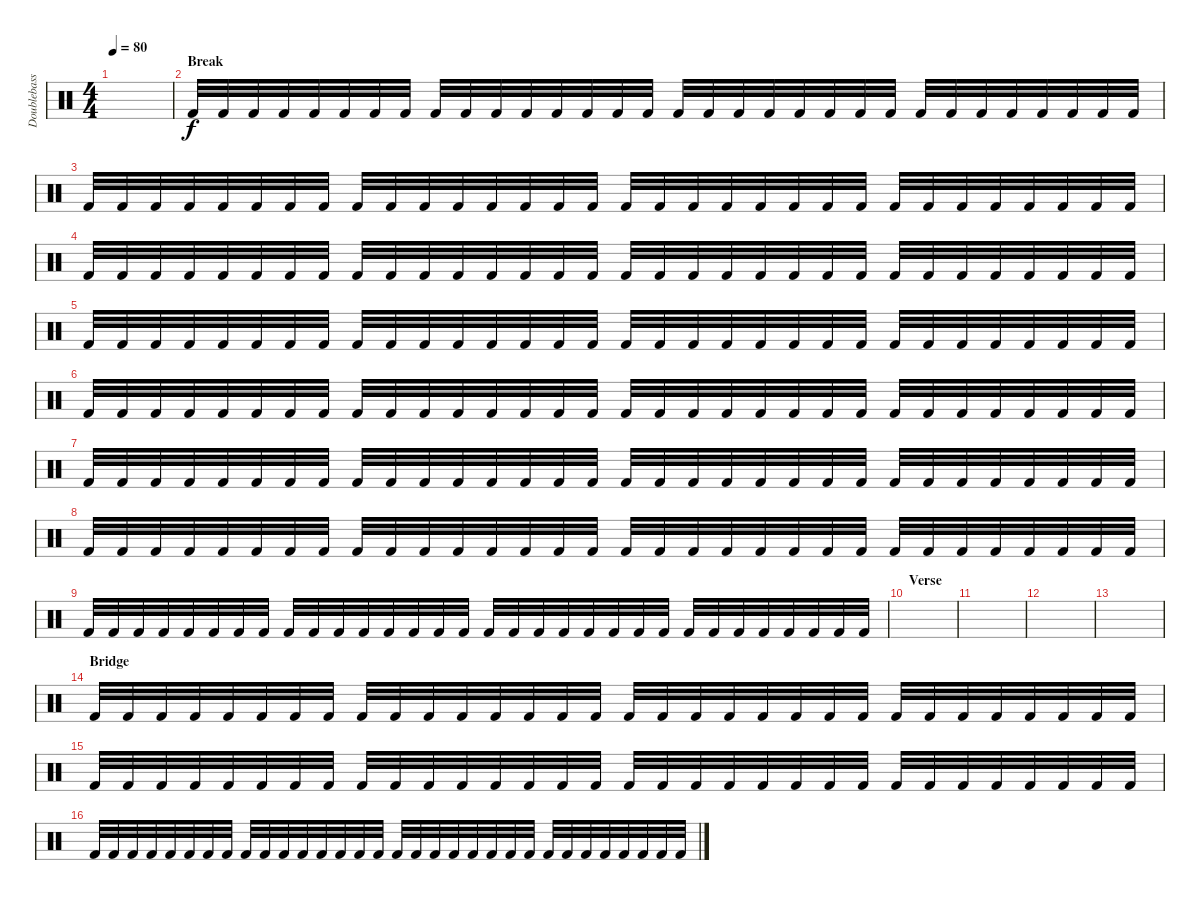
\track ("Doublebass" "Doublebass") {instrument percussion}
\staff {score}
\articulation defaults
\ts (4 4)
\tempo 80
\clef neutral
\ks c
|
\section ("" "Break")
"Kick (hit) 2".32 "Kick (hit) 2".32 "Kick (hit) 2".32 "Kick (hit) 2".32 "Kick (hit) 2".32 "Kick (hit) 2".32 "Kick (hit) 2".32 "Kick (hit) 2".32 "Kick (hit) 2".32 "Kick (hit) 2".32 "Kick (hit) 2".32 "Kick (hit) 2".32 "Kick (hit) 2".32 "Kick (hit) 2".32 "Kick (hit) 2".32 "Kick (hit) 2".32 "Kick (hit) 2".32 "Kick (hit) 2".32 "Kick (hit) 2".32 "Kick (hit) 2".32 "Kick (hit) 2".32 "Kick (hit) 2".32 "Kick (hit) 2".32 "Kick (hit) 2".32 "Kick (hit) 2".32 "Kick (hit) 2".32 "Kick (hit) 2".32 "Kick (hit) 2".32 "Kick (hit) 2".32 "Kick (hit) 2".32 "Kick (hit) 2".32 "Kick (hit) 2".32 |
"Kick (hit) 2".32 "Kick (hit) 2".32 "Kick (hit) 2".32 "Kick (hit) 2".32 "Kick (hit) 2".32 "Kick (hit) 2".32 "Kick (hit) 2".32 "Kick (hit) 2".32 "Kick (hit) 2".32 "Kick (hit) 2".32 "Kick (hit) 2".32 "Kick (hit) 2".32 "Kick (hit) 2".32 "Kick (hit) 2".32 "Kick (hit) 2".32 "Kick (hit) 2".32 "Kick (hit) 2".32 "Kick (hit) 2".32 "Kick (hit) 2".32 "Kick (hit) 2".32 "Kick (hit) 2".32 "Kick (hit) 2".32 "Kick (hit) 2".32 "Kick (hit) 2".32 "Kick (hit) 2".32 "Kick (hit) 2".32 "Kick (hit) 2".32 "Kick (hit) 2".32 "Kick (hit) 2".32 "Kick (hit) 2".32 "Kick (hit) 2".32 "Kick (hit) 2".32 |
"Kick (hit) 2".32 "Kick (hit) 2".32 "Kick (hit) 2".32 "Kick (hit) 2".32 "Kick (hit) 2".32 "Kick (hit) 2".32 "Kick (hit) 2".32 "Kick (hit) 2".32 "Kick (hit) 2".32 "Kick (hit) 2".32 "Kick (hit) 2".32 "Kick (hit) 2".32 "Kick (hit) 2".32 "Kick (hit) 2".32 "Kick (hit) 2".32 "Kick (hit) 2".32 "Kick (hit) 2".32 "Kick (hit) 2".32 "Kick (hit) 2".32 "Kick (hit) 2".32 "Kick (hit) 2".32 "Kick (hit) 2".32 "Kick (hit) 2".32 "Kick (hit) 2".32 "Kick (hit) 2".32 "Kick (hit) 2".32 "Kick (hit) 2".32 "Kick (hit) 2".32 "Kick (hit) 2".32 "Kick (hit) 2".32 "Kick (hit) 2".32 "Kick (hit) 2".32 |
"Kick (hit) 2".32 "Kick (hit) 2".32 "Kick (hit) 2".32 "Kick (hit) 2".32 "Kick (hit) 2".32 "Kick (hit) 2".32 "Kick (hit) 2".32 "Kick (hit) 2".32 "Kick (hit) 2".32 "Kick (hit) 2".32 "Kick (hit) 2".32 "Kick (hit) 2".32 "Kick (hit) 2".32 "Kick (hit) 2".32 "Kick (hit) 2".32 "Kick (hit) 2".32 "Kick (hit) 2".32 "Kick (hit) 2".32 "Kick (hit) 2".32 "Kick (hit) 2".32 "Kick (hit) 2".32 "Kick (hit) 2".32 "Kick (hit) 2".32 "Kick (hit) 2".32 "Kick (hit) 2".32 "Kick (hit) 2".32 "Kick (hit) 2".32 "Kick (hit) 2".32 "Kick (hit) 2".32 "Kick (hit) 2".32 "Kick (hit) 2".32 "Kick (hit) 2".32 |
"Kick (hit) 2".32 "Kick (hit) 2".32 "Kick (hit) 2".32 "Kick (hit) 2".32 "Kick (hit) 2".32 "Kick (hit) 2".32 "Kick (hit) 2".32 "Kick (hit) 2".32 "Kick (hit) 2".32 "Kick (hit) 2".32 "Kick (hit) 2".32 "Kick (hit) 2".32 "Kick (hit) 2".32 "Kick (hit) 2".32 "Kick (hit) 2".32 "Kick (hit) 2".32 "Kick (hit) 2".32 "Kick (hit) 2".32 "Kick (hit) 2".32 "Kick (hit) 2".32 "Kick (hit) 2".32 "Kick (hit) 2".32 "Kick (hit) 2".32 "Kick (hit) 2".32 "Kick (hit) 2".32 "Kick (hit) 2".32 "Kick (hit) 2".32 "Kick (hit) 2".32 "Kick (hit) 2".32 "Kick (hit) 2".32 "Kick (hit) 2".32 "Kick (hit) 2".32 |
"Kick (hit) 2".32 "Kick (hit) 2".32 "Kick (hit) 2".32 "Kick (hit) 2".32 "Kick (hit) 2".32 "Kick (hit) 2".32 "Kick (hit) 2".32 "Kick (hit) 2".32 "Kick (hit) 2".32 "Kick (hit) 2".32 "Kick (hit) 2".32 "Kick (hit) 2".32 "Kick (hit) 2".32 "Kick (hit) 2".32 "Kick (hit) 2".32 "Kick (hit) 2".32 "Kick (hit) 2".32 "Kick (hit) 2".32 "Kick (hit) 2".32 "Kick (hit) 2".32 "Kick (hit) 2".32 "Kick (hit) 2".32 "Kick (hit) 2".32 "Kick (hit) 2".32 "Kick (hit) 2".32 "Kick (hit) 2".32 "Kick (hit) 2".32 "Kick (hit) 2".32 "Kick (hit) 2".32 "Kick (hit) 2".32 "Kick (hit) 2".32 "Kick (hit) 2".32 |
"Kick (hit) 2".32 "Kick (hit) 2".32 "Kick (hit) 2".32 "Kick (hit) 2".32 "Kick (hit) 2".32 "Kick (hit) 2".32 "Kick (hit) 2".32 "Kick (hit) 2".32 "Kick (hit) 2".32 "Kick (hit) 2".32 "Kick (hit) 2".32 "Kick (hit) 2".32 "Kick (hit) 2".32 "Kick (hit) 2".32 "Kick (hit) 2".32 "Kick (hit) 2".32 "Kick (hit) 2".32 "Kick (hit) 2".32 "Kick (hit) 2".32 "Kick (hit) 2".32 "Kick (hit) 2".32 "Kick (hit) 2".32 "Kick (hit) 2".32 "Kick (hit) 2".32 "Kick (hit) 2".32 "Kick (hit) 2".32 "Kick (hit) 2".32 "Kick (hit) 2".32 "Kick (hit) 2".32 "Kick (hit) 2".32 "Kick (hit) 2".32 "Kick (hit) 2".32 |
"Kick (hit) 2".32 "Kick (hit) 2".32 "Kick (hit) 2".32 "Kick (hit) 2".32 "Kick (hit) 2".32 "Kick (hit) 2".32 "Kick (hit) 2".32 "Kick (hit) 2".32 "Kick (hit) 2".32 "Kick (hit) 2".32 "Kick (hit) 2".32 "Kick (hit) 2".32 "Kick (hit) 2".32 "Kick (hit) 2".32 "Kick (hit) 2".32 "Kick (hit) 2".32 "Kick (hit) 2".32 "Kick (hit) 2".32 "Kick (hit) 2".32 "Kick (hit) 2".32 "Kick (hit) 2".32 "Kick (hit) 2".32 "Kick (hit) 2".32 "Kick (hit) 2".32 "Kick (hit) 2".32 "Kick (hit) 2".32 "Kick (hit) 2".32 "Kick (hit) 2".32 "Kick (hit) 2".32 "Kick (hit) 2".32 "Kick (hit) 2".32 "Kick (hit) 2".32 |
\section ("" "Verse")
|
|
|
|
\section ("" "Bridge")
"Kick (hit) 2".32 "Kick (hit) 2".32 "Kick (hit) 2".32 "Kick (hit) 2".32 "Kick (hit) 2".32 "Kick (hit) 2".32 "Kick (hit) 2".32 "Kick (hit) 2".32 "Kick (hit) 2".32 "Kick (hit) 2".32 "Kick (hit) 2".32 "Kick (hit) 2".32 "Kick (hit) 2".32 "Kick (hit) 2".32 "Kick (hit) 2".32 "Kick (hit) 2".32 "Kick (hit) 2".32 "Kick (hit) 2".32 "Kick (hit) 2".32 "Kick (hit) 2".32 "Kick (hit) 2".32 "Kick (hit) 2".32 "Kick (hit) 2".32 "Kick (hit) 2".32 "Kick (hit) 2".32 "Kick (hit) 2".32 "Kick (hit) 2".32 "Kick (hit) 2".32 "Kick (hit) 2".32 "Kick (hit) 2".32 "Kick (hit) 2".32 "Kick (hit) 2".32 |
"Kick (hit) 2".32 "Kick (hit) 2".32 "Kick (hit) 2".32 "Kick (hit) 2".32 "Kick (hit) 2".32 "Kick (hit) 2".32 "Kick (hit) 2".32 "Kick (hit) 2".32 "Kick (hit) 2".32 "Kick (hit) 2".32 "Kick (hit) 2".32 "Kick (hit) 2".32 "Kick (hit) 2".32 "Kick (hit) 2".32 "Kick (hit) 2".32 "Kick (hit) 2".32 "Kick (hit) 2".32 "Kick (hit) 2".32 "Kick (hit) 2".32 "Kick (hit) 2".32 "Kick (hit) 2".32 "Kick (hit) 2".32 "Kick (hit) 2".32 "Kick (hit) 2".32 "Kick (hit) 2".32 "Kick (hit) 2".32 "Kick (hit) 2".32 "Kick (hit) 2".32 "Kick (hit) 2".32 "Kick (hit) 2".32 "Kick (hit) 2".32 "Kick (hit) 2".32 |
"Kick (hit) 2".32 "Kick (hit) 2".32 "Kick (hit) 2".32 "Kick (hit) 2".32 "Kick (hit) 2".32 "Kick (hit) 2".32 "Kick (hit) 2".32 "Kick (hit) 2".32 "Kick (hit) 2".32 "Kick (hit) 2".32 "Kick (hit) 2".32 "Kick (hit) 2".32 "Kick (hit) 2".32 "Kick (hit) 2".32 "Kick (hit) 2".32 "Kick (hit) 2".32 "Kick (hit) 2".32 "Kick (hit) 2".32 "Kick (hit) 2".32 "Kick (hit) 2".32 "Kick (hit) 2".32 "Kick (hit) 2".32 "Kick (hit) 2".32 "Kick (hit) 2".32 "Kick (hit) 2".32 "Kick (hit) 2".32 "Kick (hit) 2".32 "Kick (hit) 2".32 "Kick (hit) 2".32 "Kick (hit) 2".32 "Kick (hit) 2".32 "Kick (hit) 2".32
